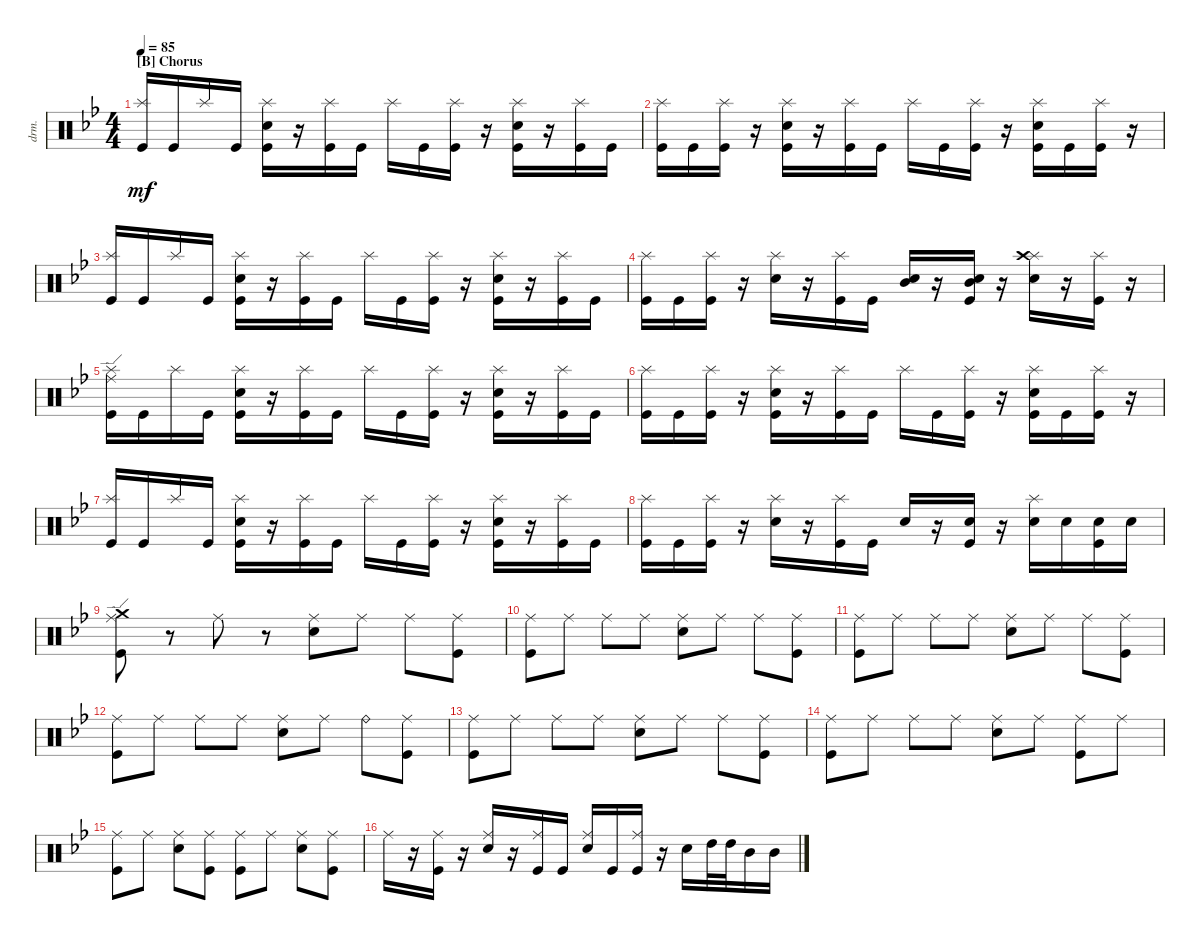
\defaultSystemsLayout 4
\bracketExtendMode groupsimilarinstruments
\otherSystemsTrackNameOrientation horizontal
\track ("Drumkit" "drm.") {solo instrument percussion}
\staff {score}
\articulation defaults
\ts (4 4)
\section ("B" "Chorus")
\scale
1.06963
\tempo 85
\accidentals auto
\clef neutral
\ottava regular
\simile none
\ks bb
("Kick (hit)"{acc forcenatural} "Splash (hit)"{acc forcenatural}).16{dy mf beam Up} "Kick (hit)"{acc forcenatural}.16{beam Up} "Splash (hit)"{acc forcenatural}.16{beam Up} "Kick (hit)"{acc forcenatural}.16{beam Up} ("Kick (hit)"{acc forcenatural} "Snare (hit) 2"{acc forcenatural} "Splash (hit)"{acc forcenatural}).16{beam Down} r.16{beam Down} ("Kick (hit)"{acc forcenatural} "Splash (hit)"{acc forcenatural}).16{beam Down} "Kick (hit)"{acc forcenatural}.16{beam Down} "Splash (hit)"{acc forcenatural}.16{beam Down} "Kick (hit)"{acc forcenatural}.16{beam Down} ("Kick (hit)"{acc forcenatural} "Splash (hit)"{acc forcenatural}).16{beam Down} r.16{beam Down} ("Kick (hit)"{acc forcenatural} "Snare (hit) 2"{acc forcenatural} "Splash (hit)"{acc forcenatural}).16{beam Down} r.16{beam Down} ("Kick (hit)"{acc forcenatural} "Splash (hit)"{acc forcenatural}).16{beam Down} "Kick (hit)"{acc forcenatural}.16{beam Down} |
\scale
0.97679 ("Kick (hit)"{acc forcenatural} "Splash (hit)"{acc forcenatural}).16{beam Down} "Kick (hit)"{acc forcenatural}.16{beam Down} ("Splash (hit)"{acc forcenatural} "Kick (hit)"{acc forcenatural}).16{beam Down} r.16{beam Down} ("Kick (hit)"{acc forcenatural} "Splash (hit)"{acc forcenatural} "Snare (hit) 2"{acc forcenatural}).16{beam Down} r.16{beam Down} ("Kick (hit)"{acc forcenatural} "Splash (hit)"{acc forcenatural}).16{beam Down} "Kick (hit)"{acc forcenatural}.16{beam Down} "Splash (hit)"{acc forcenatural}.16{beam Down} "Kick (hit)"{acc forcenatural}.16{beam Down} ("Kick (hit)"{acc forcenatural} "Splash (hit)"{acc forcenatural}).16{beam Down} r.16{beam Down} ("Kick (hit)"{acc forcenatural} "Splash (hit)"{acc forcenatural} "Snare (hit) 2"{acc forcenatural}).16{beam Down} "Kick (hit)"{acc forcenatural}.16{beam Down} ("Kick (hit)"{acc forcenatural} "Splash (hit)"{acc forcenatural}).16{beam Down} r.16{beam Down} |
\scale
0.97679 ("Kick (hit)"{acc forcenatural} "Splash (hit)"{acc forcenatural}).16{beam Up} "Kick (hit)"{acc forcenatural}.16{beam Up} "Splash (hit)"{acc forcenatural}.16{beam Up} "Kick (hit)"{acc forcenatural}.16{beam Up} ("Kick (hit)"{acc forcenatural} "Snare (hit) 2"{acc forcenatural} "Splash (hit)"{acc forcenatural}).16{beam Down} r.16{beam Down} ("Kick (hit)"{acc forcenatural} "Splash (hit)"{acc forcenatural}).16{beam Down} "Kick (hit)"{acc forcenatural}.16{beam Down} "Splash (hit)"{acc forcenatural}.16{beam Down} "Kick (hit)"{acc forcenatural}.16{beam Down} ("Kick (hit)"{acc forcenatural} "Splash (hit)"{acc forcenatural}).16{beam Down} r.16{beam Down} ("Kick (hit)"{acc forcenatural} "Snare (hit) 2"{acc forcenatural} "Splash (hit)"{acc forcenatural}).16{beam Down} r.16{beam Down} ("Kick (hit)"{acc forcenatural} "Splash (hit)"{acc forcenatural}).16{beam Down} "Kick (hit)"{acc forcenatural}.16{beam Down} |
\scale
0.97679 ("Kick (hit)"{acc forcenatural} "Splash (hit)"{acc forcenatural}).16{beam Down} "Kick (hit)"{acc forcenatural}.16{beam Down} ("Kick (hit)"{acc forcenatural} "Splash (hit)"{acc forcenatural}).16{beam Down} r.16{beam Down} ("Snare (hit) 2"{acc forcenatural} "Splash (hit)"{acc forcenatural}).16{beam Down} r.16{beam Down} ("Kick (hit)"{acc forcenatural} "Splash (hit)"{acc forcenatural}).16{beam Down} "Kick (hit)"{acc forcenatural}.16{beam Down} ("Mid Tom (hit)"{acc forcenatural} "Snare (hit) 2"{acc forcenatural}).16{beam Up} r.16{beam Up} ("Kick (hit)"{acc forcenatural} "Mid Tom (hit)"{acc forcenatural} "Snare (hit) 2"{acc forcenatural}).16{beam Up} r.16{beam Up} ("Snare (hit) 2"{acc forcenatural} "Splash (hit)"{acc forcenatural} "Crash high (hit)"{acc forcenatural}).16{beam Down} r.16{beam Down} ("Kick (hit)"{acc forcenatural} "Splash (hit)"{acc forcenatural}).16{beam Down} r.16{beam Down} |
\scale
1.06963 ("Kick (hit)"{acc forcenatural} "Splash (hit)"{acc forcenatural} "Ride (edge)"{acc forcenatural}).16{beam Down} "Kick (hit)"{acc forcenatural}.16{beam Down} "Splash (hit)"{acc forcenatural}.16{beam Down} "Kick (hit)"{acc forcenatural}.16{beam Down} ("Kick (hit)"{acc forcenatural} "Snare (hit) 2"{acc forcenatural} "Splash (hit)"{acc forcenatural}).16{beam Down} r.16{beam Down} ("Kick (hit)"{acc forcenatural} "Splash (hit)"{acc forcenatural}).16{beam Down} "Kick (hit)"{acc forcenatural}.16{beam Down} "Splash (hit)"{acc forcenatural}.16{beam Down} "Kick (hit)"{acc forcenatural}.16{beam Down} ("Kick (hit)"{acc forcenatural} "Splash (hit)"{acc forcenatural}).16{beam Down} r.16{beam Down} ("Kick (hit)"{acc forcenatural} "Snare (hit) 2"{acc forcenatural} "Splash (hit)"{acc forcenatural}).16{beam Down} r.16{beam Down} ("Kick (hit)"{acc forcenatural} "Splash (hit)"{acc forcenatural}).16{beam Down} "Kick (hit)"{acc forcenatural}.16{beam Down} |
\scale
0.97679 ("Kick (hit)"{acc forcenatural} "Splash (hit)"{acc forcenatural}).16{beam Down} "Kick (hit)"{acc forcenatural}.16{beam Down} ("Splash (hit)"{acc forcenatural} "Kick (hit)"{acc forcenatural}).16{beam Down} r.16{beam Down} ("Kick (hit)"{acc forcenatural} "Splash (hit)"{acc forcenatural} "Snare (hit) 2"{acc forcenatural}).16{beam Down} r.16{beam Down} ("Kick (hit)"{acc forcenatural} "Splash (hit)"{acc forcenatural}).16{beam Down} "Kick (hit)"{acc forcenatural}.16{beam Down} "Splash (hit)"{acc forcenatural}.16{beam Down} "Kick (hit)"{acc forcenatural}.16{beam Down} ("Kick (hit)"{acc forcenatural} "Splash (hit)"{acc forcenatural}).16{beam Down} r.16{beam Down} ("Kick (hit)"{acc forcenatural} "Splash (hit)"{acc forcenatural} "Snare (hit) 2"{acc forcenatural}).16{beam Down} "Kick (hit)"{acc forcenatural}.16{beam Down} ("Kick (hit)"{acc forcenatural} "Splash (hit)"{acc forcenatural}).16{beam Down} r.16{beam Down} |
\scale
0.97679 ("Kick (hit)"{acc forcenatural} "Splash (hit)"{acc forcenatural}).16{beam Up} "Kick (hit)"{acc forcenatural}.16{beam Up} "Splash (hit)"{acc forcenatural}.16{beam Up} "Kick (hit)"{acc forcenatural}.16{beam Up} ("Kick (hit)"{acc forcenatural} "Snare (hit) 2"{acc forcenatural} "Splash (hit)"{acc forcenatural}).16{beam Down} r.16{beam Down} ("Kick (hit)"{acc forcenatural} "Splash (hit)"{acc forcenatural}).16{beam Down} "Kick (hit)"{acc forcenatural}.16{beam Down} "Splash (hit)"{acc forcenatural}.16{beam Down} "Kick (hit)"{acc forcenatural}.16{beam Down} ("Kick (hit)"{acc forcenatural} "Splash (hit)"{acc forcenatural}).16{beam Down} r.16{beam Down} ("Kick (hit)"{acc forcenatural} "Snare (hit) 2"{acc forcenatural} "Splash (hit)"{acc forcenatural}).16{beam Down} r.16{beam Down} ("Kick (hit)"{acc forcenatural} "Splash (hit)"{acc forcenatural}).16{beam Down} "Kick (hit)"{acc forcenatural}.16{beam Down} |
\scale
0.97679 ("Kick (hit)"{acc forcenatural} "Splash (hit)"{acc forcenatural}).16{beam Down} "Kick (hit)"{acc forcenatural}.16{beam Down} ("Kick (hit)"{acc forcenatural} "Splash (hit)"{acc forcenatural}).16{beam Down} r.16{beam Down} ("Snare (hit) 2"{acc forcenatural} "Splash (hit)"{acc forcenatural}).16{beam Down} r.16{beam Down} ("Kick (hit)"{acc forcenatural} "Splash (hit)"{acc forcenatural}).16{beam Down} "Kick (hit)"{acc forcenatural}.16{beam Down} "Snare (hit) 2"{acc forcenatural}.16{beam Up} r.16{beam Up} ("Kick (hit)"{acc forcenatural} "Snare (hit) 2"{acc forcenatural}).16{beam Up} r.16{beam Up} ("Snare (hit) 2"{acc forcenatural} "Splash (hit)"{acc forcenatural}).16{beam Down} "Snare (hit) 2"{acc forcenatural}.16{beam Down} ("Kick (hit)"{acc forcenatural} "Snare (hit) 2"{acc forcenatural}).16{beam Down} "Snare (hit) 2"{acc forcenatural}.16{beam Down} |
\scale
1.06963 ("Kick (hit)"{acc forcenatural} "Ride (edge)"{acc forcenatural} "Crash medium (hit)"{acc forcenatural}).8{beam Down} r.8{beam Down} "Ride (middle)"{acc forcenatural}.8{beam Down} r.8{beam Down} ("Snare (hit) 2"{acc forcenatural} "Ride (middle)"{acc forcenatural}).8{beam Down} "Ride (middle)"{acc forcenatural}.8{beam Down} "Ride (middle)"{acc forcenatural}.8{beam Down} ("Kick (hit)"{acc forcenatural} "Ride (middle)"{acc forcenatural}).8{beam Down} |
\scale
0.97679 ("Kick (hit)"{acc forcenatural} "Ride (middle)"{acc forcenatural}).8{beam Down} "Ride (middle)"{acc forcenatural}.8{beam Down} "Ride (middle)"{acc forcenatural}.8{beam Down} "Ride (middle)"{acc forcenatural}.8{beam Down} ("Snare (hit) 2"{acc forcenatural} "Ride (middle)"{acc forcenatural}).8{beam Down} "Ride (middle)"{acc forcenatural}.8{beam Down} "Ride (middle)"{acc forcenatural}.8{beam Down} ("Kick (hit)"{acc forcenatural} "Ride (middle)"{acc forcenatural}).8{beam Down} |
\scale
0.97679 ("Kick (hit)"{acc forcenatural} "Ride (middle)"{acc forcenatural}).8{beam Down} "Ride (middle)"{acc forcenatural}.8{beam Down} "Ride (middle)"{acc forcenatural}.8{beam Down} "Ride (middle)"{acc forcenatural}.8{beam Down} ("Snare (hit) 2"{acc forcenatural} "Ride (middle)"{acc forcenatural}).8{beam Down} "Ride (middle)"{acc forcenatural}.8{beam Down} "Ride (middle)"{acc forcenatural}.8{beam Down} ("Kick (hit)"{acc forcenatural} "Ride (middle)"{acc forcenatural}).8{beam Down} |
\scale
0.97679 ("Kick (hit)"{acc forcenatural} "Ride (middle)"{acc forcenatural}).8{beam Down} "Ride (middle)"{acc forcenatural}.8{beam Down} "Ride (middle)"{acc forcenatural}.8{beam Down} "Ride (middle)"{acc forcenatural}.8{beam Down} ("Snare (hit) 2"{acc forcenatural} "Ride (middle)"{acc forcenatural}).8{beam Down} "Ride (middle)"{acc forcenatural}.8{beam Down} "Ride (bell)"{acc forcenatural}.8{beam Down} ("Kick (hit)"{acc forcenatural} "Ride (middle)"{acc forcenatural}).8{beam Down} |
\scale
1.06495 ("Kick (hit)"{acc forcenatural} "Ride (middle)"{acc forcenatural}).8{beam Down} "Ride (middle)"{acc forcenatural}.8{beam Down} "Ride (middle)"{acc forcenatural}.8{beam Down} "Ride (middle)"{acc forcenatural}.8{beam Down} ("Snare (hit) 2"{acc forcenatural} "Ride (middle)"{acc forcenatural}).8{beam Down} "Ride (middle)"{acc forcenatural}.8{beam Down} "Ride (middle)"{acc forcenatural}.8{beam Down} ("Kick (hit)"{acc forcenatural} "Ride (middle)"{acc forcenatural}).8{beam Down} |
\scale
0.972111 ("Kick (hit)"{acc forcenatural} "Ride (middle)"{acc forcenatural}).8{beam Down} "Ride (middle)"{acc forcenatural}.8{beam Down} "Ride (middle)"{acc forcenatural}.8{beam Down} "Ride (middle)"{acc forcenatural}.8{beam Down} ("Snare (hit) 2"{acc forcenatural} "Ride (middle)"{acc forcenatural}).8{beam Down} "Ride (middle)"{acc forcenatural}.8{beam Down} ("Ride (middle)"{acc forcenatural} "Kick (hit)"{acc forcenatural}).8{beam Down} "Ride (middle)"{acc forcenatural}.8{beam Down} |
\scale
0.972111 ("Kick (hit)"{acc forcenatural} "Ride (middle)"{acc forcenatural}).8{beam Down} "Ride (middle)"{acc forcenatural}.8{beam Down} ("Ride (middle)"{acc forcenatural} "Snare (hit) 2"{acc forcenatural}).8{beam Down} ("Ride (middle)"{acc forcenatural} "Kick (hit)"{acc forcenatural}).8{beam Down} ("Ride (middle)"{acc forcenatural} "Kick (hit)"{acc forcenatural}).8{beam Down} "Ride (middle)"{acc forcenatural}.8{beam Down} ("Ride (middle)"{acc forcenatural} "Snare (hit) 2"{acc forcenatural}).8{beam Down} ("Ride (middle)"{acc forcenatural} "Kick (hit)"{acc forcenatural}).8{beam Down} |
\scale
0.990827 "Ride (middle)"{acc forcenatural}.16{beam Down} r.16{beam Down} ("Kick (hit)"{acc forcenatural} "Ride (middle)"{acc forcenatural}).16{beam Down} r.16{beam Down} ("Snare (hit) 2"{acc forcenatural} "Ride (middle)"{acc forcenatural}).16{beam Up} r.16{beam Up} ("Kick (hit)"{acc forcenatural} "Ride (middle)"{acc forcenatural}).16{beam Up} "Kick (hit)"{acc forcenatural}.16{beam Up} ("Snare (hit) 2"{acc forcenatural} "Ride (middle)"{acc forcenatural}).16{beam Up} "Kick (hit)"{acc forcenatural}.16{beam Up} ("Kick (hit)"{acc forcenatural} "Ride (middle)"{acc forcenatural}).16{beam Up} r.16{beam Up} "Snare (hit) 2"{acc forcenatural}.16{beam Down} "High Tom (hit)"{acc forcenatural}.32{beam Down} "High Tom (hit)"{acc forcenatural}.32{beam Down} "Mid Tom (hit)"{acc forcenatural}.16{beam Down} "Mid Tom (hit)"{acc forcenatural}.16{beam Down}
